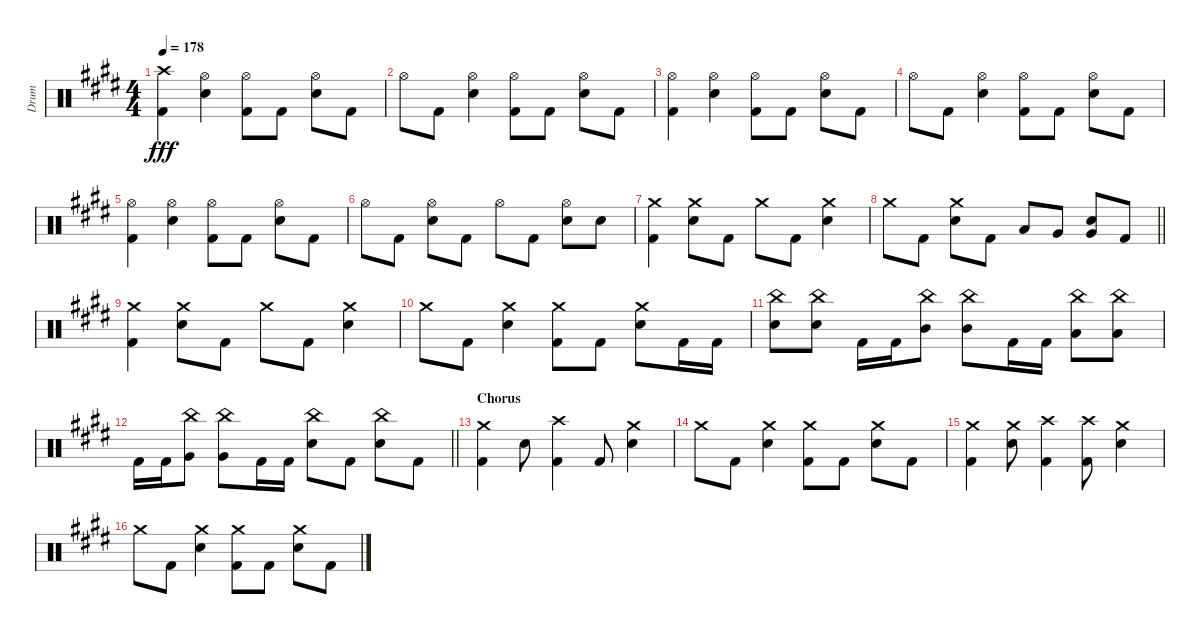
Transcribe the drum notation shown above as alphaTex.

\track ("Drum" "Drum") {instrument percussion}
\staff {score}
\articulation defaults
\ts (4 4)
\tempo 178
\clef neutral
\ks e
("Crash high (hit)" "Kick (hit) 2").4{dy fff} ("Hi-Hat (open)" "Electric Snare (hit)").4 ("Hi-Hat (open)" "Kick (hit) 2").8 "Kick (hit) 2".8 ("Hi-Hat (open)" "Electric Snare (hit)").8 "Kick (hit) 2".8 |
"Hi-Hat (open)".8 "Kick (hit) 2".8 ("Hi-Hat (open)" "Electric Snare (hit)").4 ("Hi-Hat (open)" "Kick (hit) 2").8 "Kick (hit) 2".8 ("Hi-Hat (open)" "Electric Snare (hit)").8 "Kick (hit) 2".8 |
("Hi-Hat (open)" "Kick (hit) 2").4 ("Hi-Hat (open)" "Electric Snare (hit)").4 ("Hi-Hat (open)" "Kick (hit) 2").8 "Kick (hit) 2".8 ("Hi-Hat (open)" "Electric Snare (hit)").8 "Kick (hit) 2".8 |
"Hi-Hat (open)".8 "Kick (hit) 2".8 ("Hi-Hat (open)" "Electric Snare (hit)").4 ("Hi-Hat (open)" "Kick (hit) 2").8 "Kick (hit) 2".8 ("Hi-Hat (open)" "Electric Snare (hit)").8 "Kick (hit) 2".8 |
("Hi-Hat (open)" "Kick (hit) 2").4 ("Hi-Hat (open)" "Electric Snare (hit)").4 ("Hi-Hat (open)" "Kick (hit) 2").8 "Kick (hit) 2".8 ("Hi-Hat (open)" "Electric Snare (hit)").8 "Kick (hit) 2".8 |
"Hi-Hat (open)".8 "Kick (hit) 2".8 ("Hi-Hat (open)" "Electric Snare (hit)").8 "Kick (hit) 2".8 "Hi-Hat (open)".8 "Kick (hit) 2".8 ("Hi-Hat (open)" "Electric Snare (hit)").8 "Electric Snare (hit)".8 |
("Crash medium (hit)" "Kick (hit) 2").4 ("Crash medium (hit)" "Electric Snare (hit)").8 "Kick (hit) 2".8 "Crash medium (hit)".8 "Kick (hit) 2".8 ("Crash medium (hit)" "Electric Snare (hit)").4 |
\barLineRight lightlight "Crash medium (hit)".8 "Kick (hit) 2".8
("Crash medium (hit)" "Electric Snare (hit)").8 "Kick (hit) 2".8 "Low Tom (hit)".8 "Very Low Tom (hit)".8 ("Electric Snare (hit)" "Very Low Tom (hit)").8 "Kick (hit) 2".8 |
("Crash medium (hit)" "Kick (hit) 2").4 ("Crash medium (hit)" "Electric Snare (hit)").8 "Kick (hit) 2".8 "Crash medium (hit)".8 "Kick (hit) 2".8 ("Crash medium (hit)" "Electric Snare (hit)").4 |
"Crash medium (hit)".8 "Kick (hit) 2".8 ("Crash medium (hit)" "Electric Snare (hit)").4 ("Crash medium (hit)" "Kick (hit) 2").8 "Kick (hit) 2".8 ("Crash medium (hit)" "Electric Snare (hit)").8 "Kick (hit) 2".16 "Kick (hit) 2".16 |
("China (hit)" "Electric Snare (hit)").8 ("China (hit)" "Electric Snare (hit)").8 "Kick (hit) 2".16 "Kick (hit) 2".16 ("China (hit)" "Mid Tom (hit)").8 ("China (hit)" "Mid Tom (hit)").8 "Kick (hit) 2".16 "Kick (hit) 2".16 ("China (hit)" "Low Tom (hit)").8 ("China (hit)" "Low Tom (hit)").8 |
\barLineRight lightlight "Kick (hit) 2".16 "Kick (hit) 2".16
("China (hit)" "Very Low Tom (hit)").8 ("China (hit)" "Very Low Tom (hit)").8 "Kick (hit) 2".16 "Kick (hit) 2".16 ("China (hit)" "Electric Snare (hit)").8 "Kick (hit) 2".8 ("China (hit)" "Electric Snare (hit)").8 "Kick (hit) 2".8 |
\section ("" "Chorus")
("Crash medium (hit)" "Kick (hit) 2").4 "Electric Snare (hit)".8 ("Crash high (hit)" "Kick (hit) 2").4 "Kick (hit) 2".8 ("Crash medium (hit)" "Electric Snare (hit)").4 |
"Crash medium (hit)".8 "Kick (hit) 2".8 ("Crash medium (hit)" "Electric Snare (hit)").4 ("Crash medium (hit)" "Kick (hit) 2").8 "Kick (hit) 2".8 ("Crash medium (hit)" "Electric Snare (hit)").8 "Kick (hit) 2".8 |
("Crash medium (hit)" "Kick (hit) 2").4 ("Crash medium (hit)" "Electric Snare (hit)").8 ("Crash high (hit)" "Kick (hit) 2").4 ("Crash high (hit)" "Kick (hit) 2").8 ("Crash medium (hit)" "Electric Snare (hit)").4 |
"Crash medium (hit)".8 "Kick (hit) 2".8 ("Crash medium (hit)" "Electric Snare (hit)").4 ("Crash medium (hit)" "Kick (hit) 2").8 "Kick (hit) 2".8 ("Crash medium (hit)" "Electric Snare (hit)").8 "Kick (hit) 2".8
